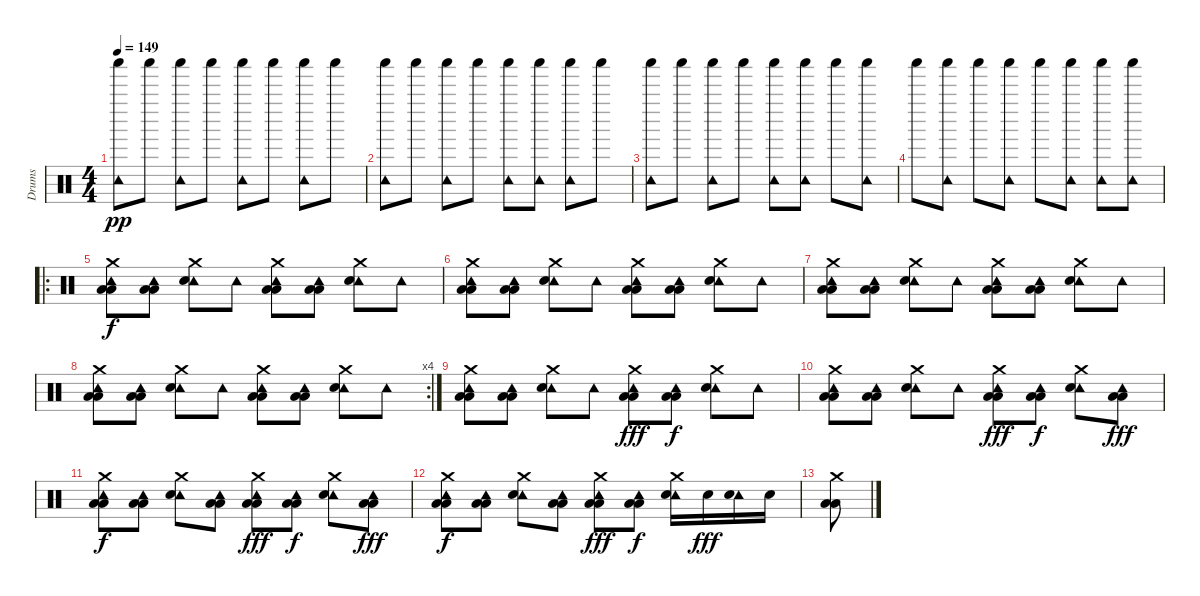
\track ("Drums" "Drums") {instrument percussion}
\staff {score}
\articulation defaults
\ts (4 4)
\tempo 149
\clef neutral
\ks c
("Tambourine (hit)" "Shaker (hit)").8{dy pp} "Shaker (hit)".8 ("Tambourine (hit)" "Shaker (hit)").8 "Shaker (hit)".8 ("Tambourine (hit)" "Shaker (hit)").8 "Shaker (hit)".8 ("Tambourine (hit)" "Shaker (hit)").8 "Shaker (hit)".8 |
("Tambourine (hit)" "Shaker (hit)").8 "Shaker (hit)".8 ("Tambourine (hit)" "Shaker (hit)").8 "Shaker (hit)".8 ("Tambourine (hit)" "Shaker (hit)").8 ("Tambourine (hit)" "Shaker (hit)").8 ("Tambourine (hit)" "Shaker (hit)").8 "Shaker (hit)".8 |
("Tambourine (hit)" "Shaker (hit)").8 "Shaker (hit)".8 ("Tambourine (hit)" "Shaker (hit)").8 "Shaker (hit)".8 ("Tambourine (hit)" "Shaker (hit)").8 ("Tambourine (hit)" "Shaker (hit)").8 "Shaker (hit)".8 ("Tambourine (hit)" "Shaker (hit)").8 |
"Shaker (hit)".8 ("Tambourine (hit)" "Shaker (hit)").8 "Shaker (hit)".8 ("Tambourine (hit)" "Shaker (hit)").8 "Shaker (hit)".8 ("Tambourine (hit)" "Shaker (hit)").8 ("Tambourine (hit)" "Shaker (hit)").8 ("Tambourine (hit)" "Shaker (hit)").8 |
\ro
("Crash medium (hit)" "Tambourine (hit)" "Low Floor Tom (hit)" "Low Floor Tom (hit)").8{dy f} ("Tambourine (hit)" "Low Floor Tom (hit)" "Low Floor Tom (hit)").8 ("Crash medium (hit)" "Tambourine (hit)" "Snare (hit) 2").8 "Tambourine (hit)".8 ("Crash medium (hit)" "Tambourine (hit)" "Low Floor Tom (hit)" "Low Floor Tom (hit)").8 ("Tambourine (hit)" "Low Floor Tom (hit)" "Low Floor Tom (hit)").8 ("Crash medium (hit)" "Tambourine (hit)" "Snare (hit) 2").8 "Tambourine (hit)".8 |
("Crash medium (hit)" "Tambourine (hit)" "Low Floor Tom (hit)" "Low Floor Tom (hit)").8 ("Tambourine (hit)" "Low Floor Tom (hit)" "Low Floor Tom (hit)").8 ("Crash medium (hit)" "Tambourine (hit)" "Snare (hit) 2").8 "Tambourine (hit)".8 ("Crash medium (hit)" "Tambourine (hit)" "Low Floor Tom (hit)" "Low Floor Tom (hit)").8 ("Tambourine (hit)" "Low Floor Tom (hit)" "Low Floor Tom (hit)").8 ("Crash medium (hit)" "Tambourine (hit)" "Snare (hit) 2").8 "Tambourine (hit)".8 |
("Crash medium (hit)" "Tambourine (hit)" "Low Floor Tom (hit)" "Low Floor Tom (hit)").8 ("Tambourine (hit)" "Low Floor Tom (hit)" "Low Floor Tom (hit)").8 ("Crash medium (hit)" "Tambourine (hit)" "Snare (hit) 2").8 "Tambourine (hit)".8 ("Crash medium (hit)" "Tambourine (hit)" "Low Floor Tom (hit)" "Low Floor Tom (hit)").8 ("Tambourine (hit)" "Low Floor Tom (hit)" "Low Floor Tom (hit)").8 ("Crash medium (hit)" "Tambourine (hit)" "Snare (hit) 2").8 "Tambourine (hit)".8 |
\rc 4
("Crash medium (hit)" "Tambourine (hit)" "Low Floor Tom (hit)" "Low Floor Tom (hit)").8 ("Tambourine (hit)" "Low Floor Tom (hit)" "Low Floor Tom (hit)").8 ("Crash medium (hit)" "Tambourine (hit)" "Snare (hit) 2").8 "Tambourine (hit)".8 ("Crash medium (hit)" "Tambourine (hit)" "Low Floor Tom (hit)" "Low Floor Tom (hit)").8 ("Tambourine (hit)" "Low Floor Tom (hit)" "Low Floor Tom (hit)").8 ("Crash medium (hit)" "Tambourine (hit)" "Snare (hit) 2").8 "Tambourine (hit)".8 |
("Crash medium (hit)" "Tambourine (hit)" "Low Floor Tom (hit)" "Low Floor Tom (hit)").8 ("Tambourine (hit)" "Low Floor Tom (hit)" "Low Floor Tom (hit)").8 ("Crash medium (hit)" "Tambourine (hit)" "Snare (hit) 2").8 "Tambourine (hit)".8 ("Crash medium (hit)" "Tambourine (hit)" "Low Floor Tom (hit)" "Low Floor Tom (hit)").8{dy fff} ("Tambourine (hit)" "Low Floor Tom (hit)" "Low Floor Tom (hit)").8{dy f} ("Crash medium (hit)" "Tambourine (hit)" "Snare (hit) 2").8 "Tambourine (hit)".8 |
("Crash medium (hit)" "Tambourine (hit)" "Low Floor Tom (hit)" "Low Floor Tom (hit)").8 ("Tambourine (hit)" "Low Floor Tom (hit)" "Low Floor Tom (hit)").8 ("Crash medium (hit)" "Tambourine (hit)" "Snare (hit) 2").8 "Tambourine (hit)".8 ("Crash medium (hit)" "Tambourine (hit)" "Low Floor Tom (hit)" "Low Floor Tom (hit)").8{dy fff} ("Tambourine (hit)" "Low Floor Tom (hit)" "Low Floor Tom (hit)").8{dy f} ("Crash medium (hit)" "Tambourine (hit)" "Snare (hit) 2").8 ("Tambourine (hit)" "Low Floor Tom (hit)" "Low Floor Tom (hit)").8{dy fff} |
("Crash medium (hit)" "Tambourine (hit)" "Low Floor Tom (hit)" "Low Floor Tom (hit)").8{dy f} ("Tambourine (hit)" "Low Floor Tom (hit)" "Low Floor Tom (hit)").8 ("Crash medium (hit)" "Tambourine (hit)" "Snare (hit) 2").8 ("Tambourine (hit)" "Low Floor Tom (hit)" "Low Floor Tom (hit)").8 ("Crash medium (hit)" "Tambourine (hit)" "Low Floor Tom (hit)" "Low Floor Tom (hit)").8{dy fff} ("Tambourine (hit)" "Low Floor Tom (hit)" "Low Floor Tom (hit)").8{dy f} ("Crash medium (hit)" "Tambourine (hit)" "Snare (hit) 2").8 ("Tambourine (hit)" "Low Floor Tom (hit)" "Low Floor Tom (hit)").8{dy fff} |
("Crash medium (hit)" "Tambourine (hit)" "Low Floor Tom (hit)" "Low Floor Tom (hit)").8{dy f} ("Tambourine (hit)" "Low Floor Tom (hit)" "Low Floor Tom (hit)").8 ("Crash medium (hit)" "Tambourine (hit)" "Snare (hit) 2").8 ("Tambourine (hit)" "Low Floor Tom (hit)" "Low Floor Tom (hit)").8 ("Crash medium (hit)" "Tambourine (hit)" "Low Floor Tom (hit)" "Low Floor Tom (hit)").8{dy fff} ("Tambourine (hit)" "Low Floor Tom (hit)" "Low Floor Tom (hit)").8{dy f} ("Crash medium (hit)" "Tambourine (hit)" "Snare (hit) 2").16 "Snare (hit) 2".16{dy fff} ("Tambourine (hit)" "Snare (hit) 2").16 "Snare (hit) 2".16 |
("Crash medium (hit)" "Low Floor Tom (hit)" "Low Floor Tom (hit)").8
